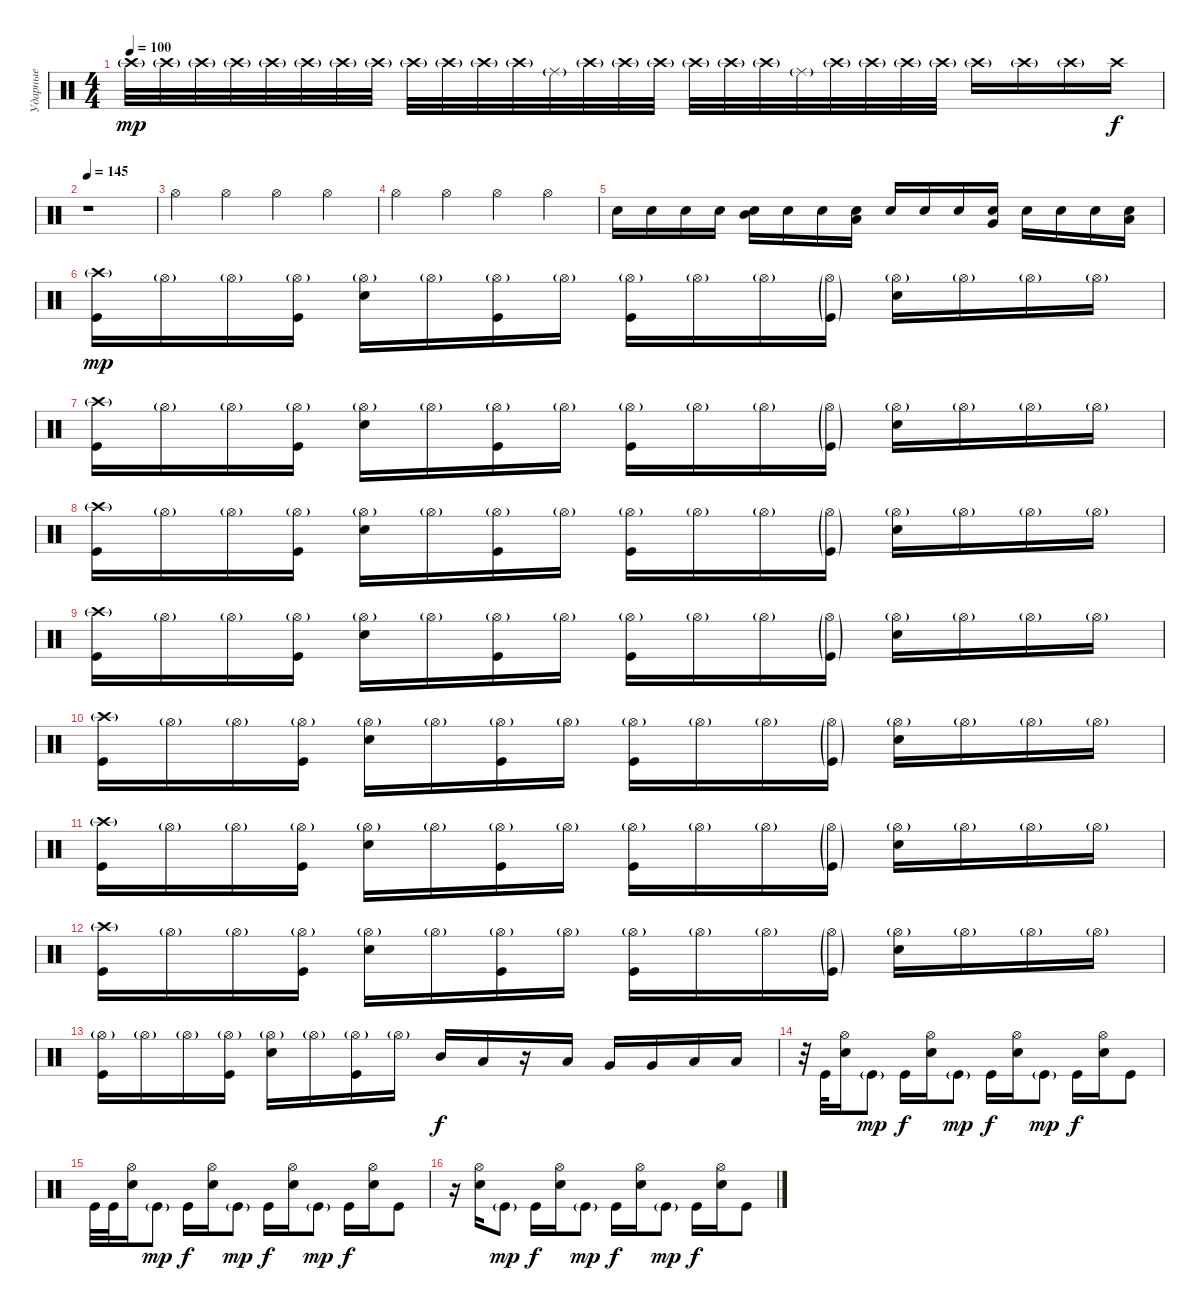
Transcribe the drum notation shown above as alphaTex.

\track ("Ударные" "Ударные") {instrument percussion}
\staff {score}
\articulation defaults
\ts (4 4)
\tempo 100
\clef neutral
\ks c "Crash high (hit)"{g}.32{dy mp} "Crash high (hit)"{g}.32 "Crash high (hit)"{g}.32 "Crash high (hit)"{g}.32 "Crash high (hit)"{g}.32 "Crash high (hit)"{g}.32 "Crash high (hit)"{g}.32 "Crash high (hit)"{g}.32 "Crash high (hit)"{g}.32 "Crash high (hit)"{g}.32 "Crash high (hit)"{g}.32 "Crash high (hit)"{g}.32 "Ride (middle)"{g}.32 "Crash high (hit)"{g}.32 "Crash high (hit)"{g}.32 "Crash high (hit)"{g}.32 "Crash high (hit)"{g}.32 "Crash high (hit)"{g}.32 "Crash high (hit)"{g}.32 "Ride (middle)"{g}.32 "Crash high (hit)"{g}.32 "Crash high (hit)"{g}.32 "Crash high (hit)"{g}.32 "Crash high (hit)"{g}.32 "Crash high (hit)"{g}.16 "Crash high (hit)"{g}.16{volume 11} "Crash high (hit)"{g}.16 "Crash high (hit)".16{dy f}
|
\tempo 145
r.1 |
"Hi-Hat (open)".4 "Hi-Hat (open)".4 "Hi-Hat (open)".4 "Hi-Hat (open)".4 |
"Hi-Hat (open)".4 "Hi-Hat (open)".4 "Hi-Hat (open)".4 "Hi-Hat (open)".4 |
"Snare (hit) 2".16 "Snare (hit) 2".16 "Snare (hit) 2".16 "Snare (hit) 2".16 ("Snare (hit) 2" "Mid Tom (hit)").16 "Snare (hit) 2".16 "Snare (hit) 2".16 ("Snare (hit) 2" "Low Tom (hit)").16 "Snare (hit) 2".16 "Snare (hit) 2".16 "Snare (hit) 2".16 ("Snare (hit) 2" "Very Low Tom (hit)").16 "Snare (hit) 2".16 "Snare (hit) 2".16 "Snare (hit) 2".16 ("Snare (hit) 2" "Low Floor Tom (hit)").16 |
("Crash high (hit)"{g} "Kick (hit)").16{dy mp} "Hi-Hat (open)"{g}.16 "Hi-Hat (open)"{g}.16 ("Hi-Hat (open)"{g} "Kick (hit)").16 ("Hi-Hat (open)"{g} "Snare (hit) 2").16 "Hi-Hat (open)"{g}.16 ("Hi-Hat (open)"{g} "Kick (hit)").16 "Hi-Hat (open)"{g}.16 ("Hi-Hat (open)"{g} "Kick (hit)").16 "Hi-Hat (open)"{g}.16 "Hi-Hat (open)"{g}.16 ("Hi-Hat (open)"{g} "Kick (hit)"{g}).16 ("Hi-Hat (open)"{g} "Snare (hit) 2").16 "Hi-Hat (open)"{g}.16 "Hi-Hat (open)"{g}.16 "Hi-Hat (open)"{g}.16 |
("Crash high (hit)"{g} "Kick (hit)").16 "Hi-Hat (open)"{g}.16 "Hi-Hat (open)"{g}.16 ("Hi-Hat (open)"{g} "Kick (hit)").16 ("Hi-Hat (open)"{g} "Snare (hit) 2").16 "Hi-Hat (open)"{g}.16 ("Hi-Hat (open)"{g} "Kick (hit)").16 "Hi-Hat (open)"{g}.16 ("Hi-Hat (open)"{g} "Kick (hit)").16 "Hi-Hat (open)"{g}.16 "Hi-Hat (open)"{g}.16 ("Hi-Hat (open)"{g} "Kick (hit)"{g}).16 ("Hi-Hat (open)"{g} "Snare (hit) 2").16 "Hi-Hat (open)"{g}.16 "Hi-Hat (open)"{g}.16 "Hi-Hat (open)"{g}.16 |
("Crash high (hit)"{g} "Kick (hit)").16 "Hi-Hat (open)"{g}.16 "Hi-Hat (open)"{g}.16 ("Hi-Hat (open)"{g} "Kick (hit)").16 ("Hi-Hat (open)"{g} "Snare (hit) 2").16 "Hi-Hat (open)"{g}.16 ("Hi-Hat (open)"{g} "Kick (hit)").16 "Hi-Hat (open)"{g}.16 ("Hi-Hat (open)"{g} "Kick (hit)").16 "Hi-Hat (open)"{g}.16 "Hi-Hat (open)"{g}.16 ("Hi-Hat (open)"{g} "Kick (hit)"{g}).16 ("Hi-Hat (open)"{g} "Snare (hit) 2").16 "Hi-Hat (open)"{g}.16 "Hi-Hat (open)"{g}.16 "Hi-Hat (open)"{g}.16 |
("Crash high (hit)"{g} "Kick (hit)").16 "Hi-Hat (open)"{g}.16 "Hi-Hat (open)"{g}.16 ("Hi-Hat (open)"{g} "Kick (hit)").16 ("Hi-Hat (open)"{g} "Snare (hit) 2").16 "Hi-Hat (open)"{g}.16 ("Hi-Hat (open)"{g} "Kick (hit)").16 "Hi-Hat (open)"{g}.16 ("Hi-Hat (open)"{g} "Kick (hit)").16 "Hi-Hat (open)"{g}.16 "Hi-Hat (open)"{g}.16 ("Hi-Hat (open)"{g} "Kick (hit)"{g}).16 ("Hi-Hat (open)"{g} "Snare (hit) 2").16 "Hi-Hat (open)"{g}.16 "Hi-Hat (open)"{g}.16 "Hi-Hat (open)"{g}.16 |
("Crash high (hit)"{g} "Kick (hit)").16 "Hi-Hat (open)"{g}.16 "Hi-Hat (open)"{g}.16 ("Hi-Hat (open)"{g} "Kick (hit)").16 ("Hi-Hat (open)"{g} "Snare (hit) 2").16 "Hi-Hat (open)"{g}.16 ("Hi-Hat (open)"{g} "Kick (hit)").16 "Hi-Hat (open)"{g}.16 ("Hi-Hat (open)"{g} "Kick (hit)").16 "Hi-Hat (open)"{g}.16 "Hi-Hat (open)"{g}.16 ("Hi-Hat (open)"{g} "Kick (hit)"{g}).16 ("Hi-Hat (open)"{g} "Snare (hit) 2").16 "Hi-Hat (open)"{g}.16 "Hi-Hat (open)"{g}.16 "Hi-Hat (open)"{g}.16 |
("Crash high (hit)"{g} "Kick (hit)").16 "Hi-Hat (open)"{g}.16 "Hi-Hat (open)"{g}.16 ("Hi-Hat (open)"{g} "Kick (hit)").16 ("Hi-Hat (open)"{g} "Snare (hit) 2").16 "Hi-Hat (open)"{g}.16 ("Hi-Hat (open)"{g} "Kick (hit)").16 "Hi-Hat (open)"{g}.16 ("Hi-Hat (open)"{g} "Kick (hit)").16 "Hi-Hat (open)"{g}.16 "Hi-Hat (open)"{g}.16 ("Hi-Hat (open)"{g} "Kick (hit)"{g}).16 ("Hi-Hat (open)"{g} "Snare (hit) 2").16 "Hi-Hat (open)"{g}.16 "Hi-Hat (open)"{g}.16 "Hi-Hat (open)"{g}.16 |
("Crash high (hit)"{g} "Kick (hit)").16 "Hi-Hat (open)"{g}.16 "Hi-Hat (open)"{g}.16 ("Hi-Hat (open)"{g} "Kick (hit)").16 ("Hi-Hat (open)"{g} "Snare (hit) 2").16 "Hi-Hat (open)"{g}.16 ("Hi-Hat (open)"{g} "Kick (hit)").16 "Hi-Hat (open)"{g}.16 ("Hi-Hat (open)"{g} "Kick (hit)").16 "Hi-Hat (open)"{g}.16 "Hi-Hat (open)"{g}.16 ("Hi-Hat (open)"{g} "Kick (hit)"{g}).16 ("Hi-Hat (open)"{g} "Snare (hit) 2").16 "Hi-Hat (open)"{g}.16 "Hi-Hat (open)"{g}.16 "Hi-Hat (open)"{g}.16 |
("Hi-Hat (open)"{g} "Kick (hit)").16 "Hi-Hat (open)"{g}.16 "Hi-Hat (open)"{g}.16 ("Hi-Hat (open)"{g} "Kick (hit)").16 ("Hi-Hat (open)"{g} "Snare (hit) 2").16 "Hi-Hat (open)"{g}.16 ("Hi-Hat (open)"{g} "Kick (hit)").16 "Hi-Hat (open)"{g}.16 "Mid Tom (hit)".16{dy f} "Low Tom (hit)".16 r.16 "Low Tom (hit)".16 "Very Low Tom (hit)".16 "Very Low Tom (hit)".16 "Low Floor Tom (hit)".16 "Low Floor Tom (hit)".16 |
r.32 "Kick (hit)".32 ("Hi-Hat (open)" "Snare (hit) 2").16 "Kick (hit)"{g}.8{dy mp} "Kick (hit)".16{dy f} ("Hi-Hat (open)" "Snare (hit) 2").16 "Kick (hit)"{g}.8{dy mp} "Kick (hit)".16{dy f} ("Hi-Hat (open)" "Snare (hit) 2").16 "Kick (hit)"{g}.8{dy mp} "Kick (hit)".16{dy f} ("Hi-Hat (open)" "Snare (hit) 2").16 "Kick (hit)".8 |
"Kick (hit)".32 "Kick (hit)".32 ("Hi-Hat (open)" "Snare (hit) 2").16 "Kick (hit)"{g}.8{dy mp} "Kick (hit)".16{dy f} ("Hi-Hat (open)" "Snare (hit) 2").16 "Kick (hit)"{g}.8{dy mp} "Kick (hit)".16{dy f} ("Hi-Hat (open)" "Snare (hit) 2").16 "Kick (hit)"{g}.8{dy mp} "Kick (hit)".16{dy f} ("Hi-Hat (open)" "Snare (hit) 2").16 "Kick (hit)".8 |
r.16 ("Hi-Hat (open)" "Snare (hit) 2").16 "Kick (hit)"{g}.8{dy mp} "Kick (hit)".16{dy f} ("Hi-Hat (open)" "Snare (hit) 2").16 "Kick (hit)"{g}.8{dy mp} "Kick (hit)".16{dy f} ("Hi-Hat (open)" "Snare (hit) 2").16 "Kick (hit)"{g}.8{dy mp} "Kick (hit)".16{dy f} ("Hi-Hat (open)" "Snare (hit) 2").16 "Kick (hit)".8
